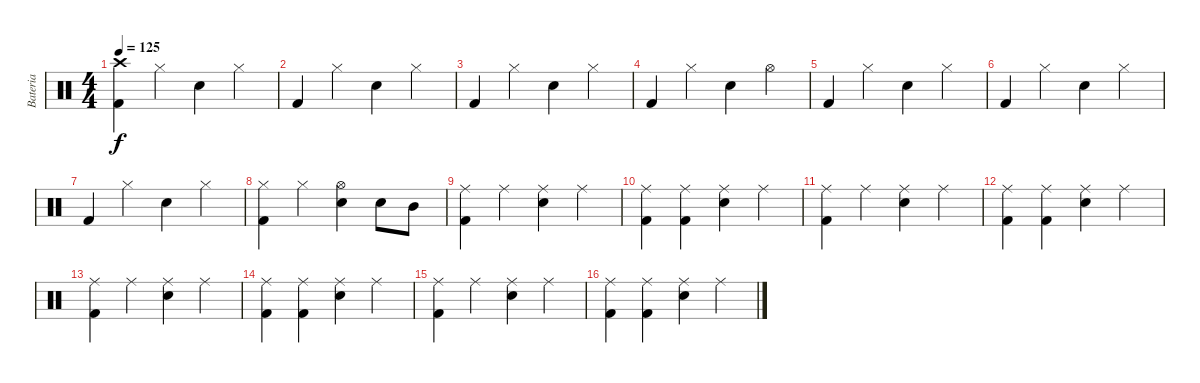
\track ("Bateria" "Bateria") {instrument percussion}
\staff {score}
\articulation defaults
\ts (4 4)
\tempo 125
\clef neutral
\ks c
("Kick (hit) 2" "Crash high (hit)").4{dy f} "Hi-Hat (closed)".4 "Electric Snare (hit)".4 "Hi-Hat (closed)".4 |
"Kick (hit) 2".4 "Hi-Hat (closed)".4 "Electric Snare (hit)".4 "Hi-Hat (closed)".4 |
"Kick (hit) 2".4 "Hi-Hat (closed)".4 "Electric Snare (hit)".4 "Hi-Hat (closed)".4 |
"Kick (hit) 2".4 "Hi-Hat (closed)".4 "Electric Snare (hit)".4 "Hi-Hat (open)".4 |
"Kick (hit) 2".4 "Hi-Hat (closed)".4 "Electric Snare (hit)".4 "Hi-Hat (closed)".4 |
"Kick (hit) 2".4 "Hi-Hat (closed)".4 "Electric Snare (hit)".4 "Hi-Hat (closed)".4 |
"Kick (hit) 2".4 "Hi-Hat (closed)".4 "Electric Snare (hit)".4 "Hi-Hat (closed)".4 |
("Kick (hit) 2" "Hi-Hat (closed)").4 "Hi-Hat (closed)".4 ("Electric Snare (hit)" "Hi-Hat (open)").4 "Electric Snare (hit)".8 "Mid Tom (hit)".8 |
("Kick (hit) 2" "Ride (middle)").4 "Ride (middle)".4 ("Electric Snare (hit)" "Ride (middle)").4 "Ride (middle)".4 |
("Kick (hit) 2" "Ride (middle)").4 ("Kick (hit) 2" "Ride (middle)").4 ("Electric Snare (hit)" "Ride (middle)").4 "Ride (middle)".4 |
("Kick (hit) 2" "Ride (middle)").4 "Ride (middle)".4 ("Electric Snare (hit)" "Ride (middle)").4 "Ride (middle)".4 |
("Kick (hit) 2" "Ride (middle)").4 ("Kick (hit) 2" "Ride (middle)").4 ("Electric Snare (hit)" "Ride (middle)").4 "Ride (middle)".4 |
("Kick (hit) 2" "Ride (middle)").4 "Ride (middle)".4 ("Electric Snare (hit)" "Ride (middle)").4 "Ride (middle)".4 |
("Kick (hit) 2" "Ride (middle)").4 ("Kick (hit) 2" "Ride (middle)").4 ("Electric Snare (hit)" "Ride (middle)").4 "Ride (middle)".4 |
("Kick (hit) 2" "Ride (middle)").4 "Ride (middle)".4 ("Electric Snare (hit)" "Ride (middle)").4 "Ride (middle)".4 |
("Kick (hit) 2" "Ride (middle)").4 ("Kick (hit) 2" "Ride (middle)").4 ("Electric Snare (hit)" "Ride (middle)").4 "Ride (middle)".4
